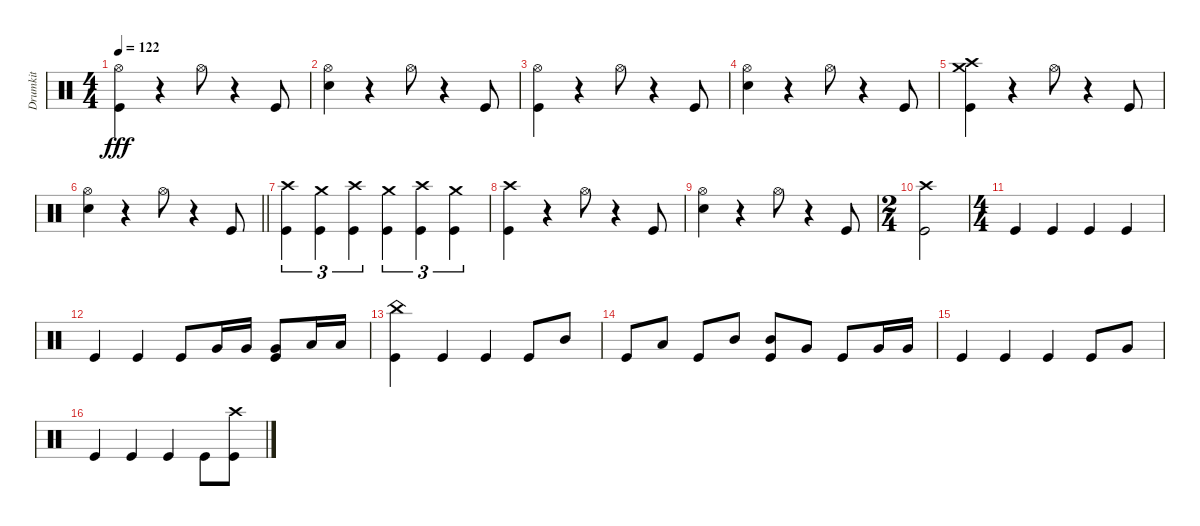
\track ("Drumkit" "Drumkit") {mute instrument percussion}
\staff {score}
\articulation defaults
\ts (4 4)
\tempo 122
\clef neutral
\ks c
("Kick (hit)" "Hi-Hat (open)").4{dy fff} r.4 "Hi-Hat (open)".8 r.4 "Kick (hit)".8 |
("Snare (hit) 2" "Hi-Hat (open)").4 r.4 "Hi-Hat (open)".8 r.4 "Kick (hit)".8 |
("Kick (hit)" "Hi-Hat (open)").4 r.4 "Hi-Hat (open)".8 r.4 "Kick (hit)".8 |
("Snare (hit) 2" "Hi-Hat (open)").4 r.4 "Hi-Hat (open)".8 r.4 "Kick (hit)".8 |
("Kick (hit)" "Crash high (hit)" "Crash medium (hit)").4 r.4 "Hi-Hat (open)".8 r.4 "Kick (hit)".8 |
\barLineRight lightlight
("Snare (hit) 2" "Hi-Hat (open)").4 r.4 "Hi-Hat (open)".8 r.4 "Kick (hit)".8 |
("Crash high (hit)" "Kick (hit)").4{tu (3 2)} ("Kick (hit)" "Crash medium (hit)").4{tu (3 2)} ("Crash high (hit)" "Kick (hit)").4{tu (3 2)} ("Kick (hit)" "Crash medium (hit)").4{tu (3 2)} ("Crash high (hit)" "Kick (hit)").4{tu (3 2)} ("Kick (hit)" "Crash medium (hit)").4{tu (3 2)} |
("Kick (hit)" "Crash high (hit)").4 r.4 "Hi-Hat (open)".8 r.4 "Kick (hit)".8 |
("Snare (hit) 2" "Hi-Hat (open)").4 r.4 "Hi-Hat (open)".8 r.4 "Kick (hit)".8 |
\ts (2 4)
("Kick (hit)" "Crash high (hit)").2 |
\ts (4 4)
"Kick (hit)".4 "Kick (hit)".4 "Kick (hit)".4 "Kick (hit)".4 |
"Kick (hit)".4 "Kick (hit)".4 "Kick (hit)".8 "Very Low Tom (hit)".16 "Very Low Tom (hit)".16 ("Kick (hit)" "Very Low Tom (hit)").8 "Low Floor Tom (hit)".16 "Low Floor Tom (hit)".16 |
("Kick (hit)" "China (hit)").4 "Kick (hit)".4 "Kick (hit)".4 "Kick (hit)".8 "Mid Tom (hit)".8 |
"Kick (hit)".8 "Low Tom (hit)".8 "Kick (hit)".8 "Mid Tom (hit)".8 ("Kick (hit)" "Mid Tom (hit)").8 "Very Low Tom (hit)".8 "Kick (hit)".8 "Very Low Tom (hit)".16 "Very Low Tom (hit)".16 |
"Kick (hit)".4 "Kick (hit)".4 "Kick (hit)".4 "Kick (hit)".8 "Very Low Tom (hit)".8 |
"Kick (hit)".4 "Kick (hit)".4 "Kick (hit)".4 "Kick (hit)".8 ("Kick (hit)" "Crash high (hit)").8
